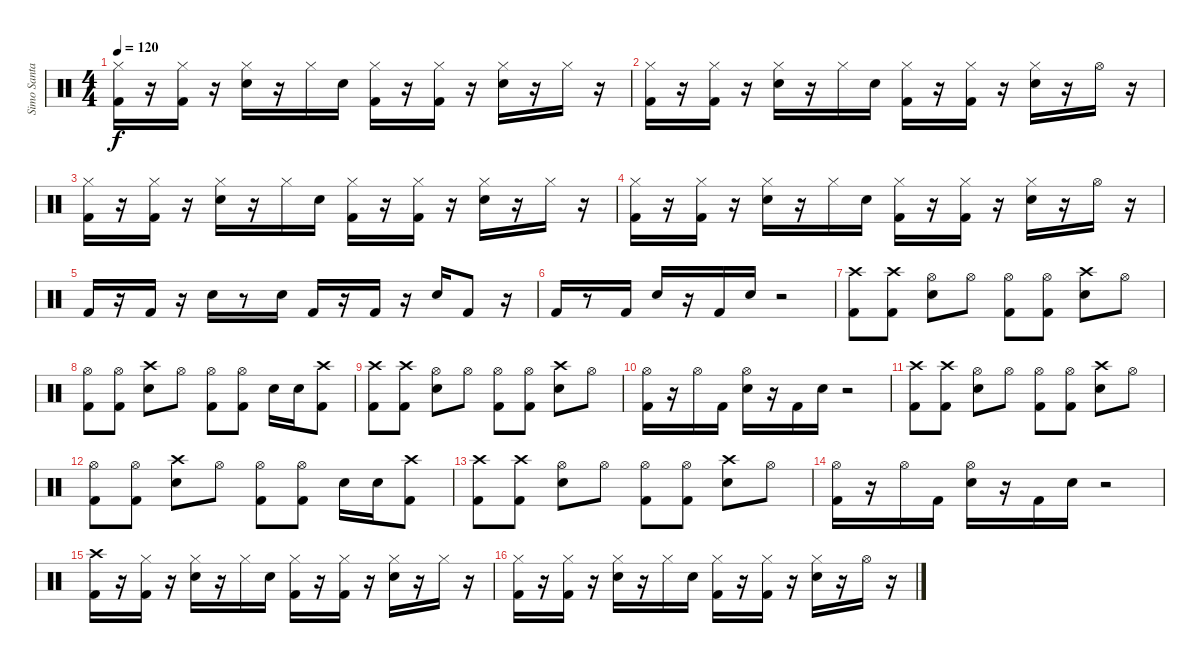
\track ("Simo Santapukki" "Simo Santa") {instrument percussion}
\staff {score}
\articulation defaults
\ts (4 4)
\tempo 120
\clef neutral
\ks c
("Hi-Hat (closed)" "Kick (hit) 2").16{dy f} r.16 ("Hi-Hat (closed)" "Kick (hit) 2").16 r.16 ("Hi-Hat (closed)" "Snare (hit) 2").16 r.16 "Hi-Hat (closed)".16 "Snare (hit) 2".16 ("Hi-Hat (closed)" "Kick (hit) 2").16 r.16 ("Hi-Hat (closed)" "Kick (hit) 2").16 r.16 ("Hi-Hat (closed)" "Snare (hit) 2").16 r.16 "Hi-Hat (closed)".16 r.16 |
("Hi-Hat (closed)" "Kick (hit) 2").16 r.16 ("Hi-Hat (closed)" "Kick (hit) 2").16 r.16 ("Hi-Hat (closed)" "Snare (hit) 2").16 r.16 "Hi-Hat (closed)".16 "Snare (hit) 2".16 ("Hi-Hat (closed)" "Kick (hit) 2").16 r.16 ("Hi-Hat (closed)" "Kick (hit) 2").16 r.16 ("Hi-Hat (closed)" "Snare (hit) 2").16 r.16 "Hi-Hat (open)".16 r.16 |
("Hi-Hat (closed)" "Kick (hit) 2").16 r.16 ("Hi-Hat (closed)" "Kick (hit) 2").16 r.16 ("Hi-Hat (closed)" "Snare (hit) 2").16 r.16 "Hi-Hat (closed)".16 "Snare (hit) 2".16 ("Hi-Hat (closed)" "Kick (hit) 2").16 r.16 ("Hi-Hat (closed)" "Kick (hit) 2").16 r.16 ("Hi-Hat (closed)" "Snare (hit) 2").16 r.16 "Hi-Hat (closed)".16 r.16 |
("Hi-Hat (closed)" "Kick (hit) 2").16 r.16 ("Hi-Hat (closed)" "Kick (hit) 2").16 r.16 ("Hi-Hat (closed)" "Snare (hit) 2").16 r.16 "Hi-Hat (closed)".16 "Snare (hit) 2".16 ("Hi-Hat (closed)" "Kick (hit) 2").16 r.16 ("Hi-Hat (closed)" "Kick (hit) 2").16 r.16 ("Hi-Hat (closed)" "Snare (hit) 2").16 r.16 "Hi-Hat (open)".16 r.16 |
"Kick (hit) 2".16 r.16 "Kick (hit) 2".16 r.16 "Snare (hit) 2".16 r.8 "Snare (hit) 2".16 "Kick (hit) 2".16 r.16 "Kick (hit) 2".16 r.16 "Snare (hit) 2".16 "Kick (hit) 2".8 r.16 |
"Kick (hit) 2".16 r.8 "Kick (hit) 2".16 "Snare (hit) 2".16 r.16 "Kick (hit) 2".16 "Snare (hit) 2".16 r.2 |
("Crash high (hit)" "Kick (hit) 2").8 ("Crash high (hit)" "Kick (hit) 2").8 ("Hi-Hat (open)" "Snare (hit) 2").8 "Hi-Hat (open)".8 ("Hi-Hat (open)" "Kick (hit) 2").8 ("Hi-Hat (open)" "Kick (hit) 2").8 ("Crash high (hit)" "Snare (hit) 2").8 "Hi-Hat (open)".8 |
("Hi-Hat (open)" "Kick (hit) 2").8 ("Hi-Hat (open)" "Kick (hit) 2").8 ("Crash high (hit)" "Snare (hit) 2").8 "Hi-Hat (open)".8 ("Hi-Hat (open)" "Kick (hit) 2").8 ("Hi-Hat (open)" "Kick (hit) 2").8 "Snare (hit) 2".16 "Snare (hit) 2".16 ("Crash high (hit)" "Kick (hit) 2").8 |
("Crash high (hit)" "Kick (hit) 2").8 ("Crash high (hit)" "Kick (hit) 2").8 ("Hi-Hat (open)" "Snare (hit) 2").8 "Hi-Hat (open)".8 ("Hi-Hat (open)" "Kick (hit) 2").8 ("Hi-Hat (open)" "Kick (hit) 2").8 ("Crash high (hit)" "Snare (hit) 2").8 "Hi-Hat (open)".8 |
("Hi-Hat (open)" "Kick (hit) 2").16 r.16 "Hi-Hat (open)".16 "Kick (hit) 2".16 ("Hi-Hat (open)" "Snare (hit) 2").16 r.16 "Kick (hit) 2".16 "Snare (hit) 2".16 r.2 |
("Crash high (hit)" "Kick (hit) 2").8 ("Crash high (hit)" "Kick (hit) 2").8 ("Hi-Hat (open)" "Snare (hit) 2").8 "Hi-Hat (open)".8 ("Hi-Hat (open)" "Kick (hit) 2").8 ("Hi-Hat (open)" "Kick (hit) 2").8 ("Crash high (hit)" "Snare (hit) 2").8 "Hi-Hat (open)".8 |
("Hi-Hat (open)" "Kick (hit) 2").8 ("Hi-Hat (open)" "Kick (hit) 2").8 ("Crash high (hit)" "Snare (hit) 2").8 "Hi-Hat (open)".8 ("Hi-Hat (open)" "Kick (hit) 2").8 ("Hi-Hat (open)" "Kick (hit) 2").8 "Snare (hit) 2".16 "Snare (hit) 2".16 ("Crash high (hit)" "Kick (hit) 2").8 |
("Crash high (hit)" "Kick (hit) 2").8 ("Crash high (hit)" "Kick (hit) 2").8 ("Hi-Hat (open)" "Snare (hit) 2").8 "Hi-Hat (open)".8 ("Hi-Hat (open)" "Kick (hit) 2").8 ("Hi-Hat (open)" "Kick (hit) 2").8 ("Crash high (hit)" "Snare (hit) 2").8 "Hi-Hat (open)".8 |
("Hi-Hat (open)" "Kick (hit) 2").16 r.16 "Hi-Hat (open)".16 "Kick (hit) 2".16 ("Hi-Hat (open)" "Snare (hit) 2").16 r.16 "Kick (hit) 2".16 "Snare (hit) 2".16 r.2 |
("Crash high (hit)" "Kick (hit) 2").16 r.16 ("Hi-Hat (closed)" "Kick (hit) 2").16 r.16 ("Hi-Hat (closed)" "Snare (hit) 2").16 r.16 "Hi-Hat (closed)".16 "Snare (hit) 2".16 ("Hi-Hat (closed)" "Kick (hit) 2").16 r.16 ("Hi-Hat (closed)" "Kick (hit) 2").16 r.16 ("Hi-Hat (closed)" "Snare (hit) 2").16 r.16 "Hi-Hat (closed)".16 r.16 |
("Hi-Hat (closed)" "Kick (hit) 2").16 r.16 ("Hi-Hat (closed)" "Kick (hit) 2").16 r.16 ("Hi-Hat (closed)" "Snare (hit) 2").16 r.16 "Hi-Hat (closed)".16 "Snare (hit) 2".16 ("Hi-Hat (closed)" "Kick (hit) 2").16 r.16 ("Hi-Hat (closed)" "Kick (hit) 2").16 r.16 ("Hi-Hat (closed)" "Snare (hit) 2").16 r.16 "Hi-Hat (open)".16 r.16
